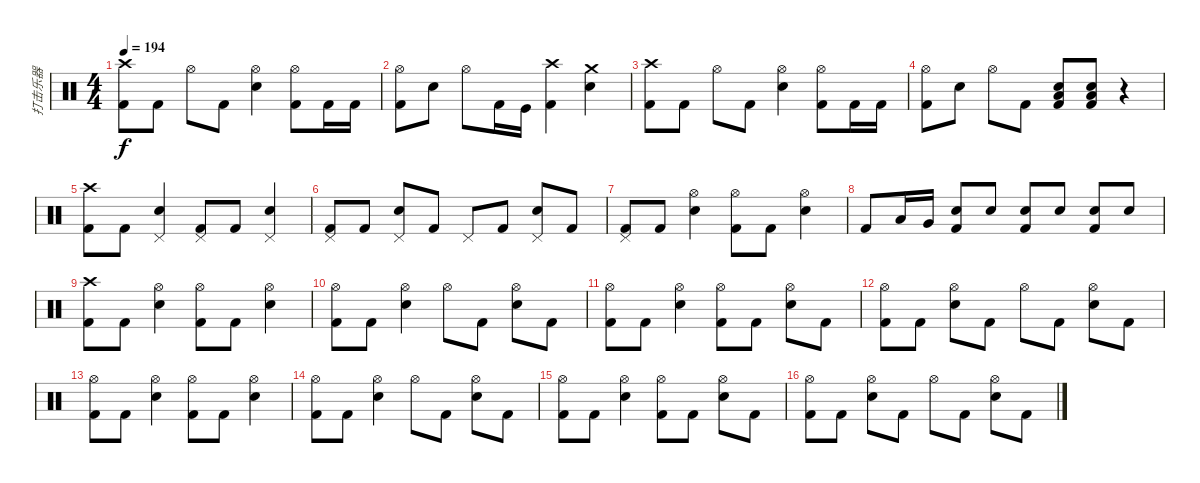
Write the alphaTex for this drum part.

\track ("打击乐器" "打击乐器") {instrument percussion}
\staff {score}
\articulation defaults
\ts (4 4)
\tempo 194
\clef neutral
\ks c
("Crash high (hit)" "Kick (hit) 2").8{dy f} "Kick (hit) 2".8 "Hi-Hat (open)".8 "Kick (hit) 2".8 ("Hi-Hat (open)" "Electric Snare (hit)").4 ("Hi-Hat (open)" "Kick (hit) 2").8 "Kick (hit) 2".16 "Kick (hit) 2".16 |
("Hi-Hat (open)" "Kick (hit) 2").8 "Electric Snare (hit)".8 "Hi-Hat (open)".8 "Kick (hit) 2".16 "Kick (hit)".16 ("Crash high (hit)" "Kick (hit) 2").4 ("Crash medium (hit)" "Electric Snare (hit)").4 |
("Crash high (hit)" "Kick (hit) 2").8 "Kick (hit) 2".8 "Hi-Hat (open)".8 "Kick (hit) 2".8 ("Hi-Hat (open)" "Electric Snare (hit)").4 ("Hi-Hat (open)" "Kick (hit) 2").8 "Kick (hit) 2".16 "Kick (hit) 2".16 |
("Hi-Hat (open)" "Kick (hit) 2").8 "Electric Snare (hit)".8 "Hi-Hat (open)".8 "Kick (hit) 2".8 ("Electric Snare (hit)" "Low Floor Tom (hit)" "Kick (hit) 2").8 ("Electric Snare (hit)" "Low Floor Tom (hit)" "Kick (hit) 2").8 r.4 |
("Crash high (hit)" "Kick (hit) 2").8 "Kick (hit) 2".8 ("Pedal Hi-Hat (hit)" "Electric Snare (hit)").4 ("Pedal Hi-Hat (hit)" "Kick (hit) 2").8 "Kick (hit) 2".8 ("Pedal Hi-Hat (hit)" "Electric Snare (hit)").4 |
("Pedal Hi-Hat (hit)" "Kick (hit) 2").8 "Kick (hit) 2".8 ("Pedal Hi-Hat (hit)" "Electric Snare (hit)").8 "Kick (hit) 2".8 "Pedal Hi-Hat (hit)".8 "Kick (hit) 2".8 ("Pedal Hi-Hat (hit)" "Electric Snare (hit)").8 "Kick (hit) 2".8 |
("Pedal Hi-Hat (hit)" "Kick (hit) 2").8 "Kick (hit) 2".8 ("Hi-Hat (open)" "Electric Snare (hit)").4 ("Hi-Hat (open)" "Kick (hit) 2").8 "Kick (hit) 2".8 ("Hi-Hat (open)" "Electric Snare (hit)").4 |
"Kick (hit) 2".8 "Low Tom (hit)".16 "Very Low Tom (hit)".16 ("Electric Snare (hit)" "Kick (hit) 2").8 "Electric Snare (hit)".8 ("Electric Snare (hit)" "Kick (hit) 2").8 "Electric Snare (hit)".8 ("Electric Snare (hit)" "Kick (hit) 2").8 "Electric Snare (hit)".8 |
("Crash high (hit)" "Kick (hit) 2").8 "Kick (hit) 2".8 ("Hi-Hat (open)" "Electric Snare (hit)").4 ("Hi-Hat (open)" "Kick (hit) 2").8 "Kick (hit) 2".8 ("Hi-Hat (open)" "Electric Snare (hit)").4 |
("Hi-Hat (open)" "Kick (hit) 2").8 "Kick (hit) 2".8 ("Hi-Hat (open)" "Electric Snare (hit)").4 "Hi-Hat (open)".8 "Kick (hit) 2".8 ("Hi-Hat (open)" "Electric Snare (hit)").8 "Kick (hit) 2".8 |
("Hi-Hat (open)" "Kick (hit) 2").8 "Kick (hit) 2".8 ("Hi-Hat (open)" "Electric Snare (hit)").4 ("Hi-Hat (open)" "Kick (hit) 2").8 "Kick (hit) 2".8 ("Hi-Hat (open)" "Electric Snare (hit)").8 "Kick (hit) 2".8 |
("Hi-Hat (open)" "Kick (hit) 2").8 "Kick (hit) 2".8 ("Hi-Hat (open)" "Electric Snare (hit)").8 "Kick (hit) 2".8 "Hi-Hat (open)".8 "Kick (hit) 2".8 ("Hi-Hat (open)" "Electric Snare (hit)").8 "Kick (hit) 2".8 |
("Hi-Hat (open)" "Kick (hit) 2").8 "Kick (hit) 2".8 ("Hi-Hat (open)" "Electric Snare (hit)").4 ("Hi-Hat (open)" "Kick (hit) 2").8 "Kick (hit) 2".8 ("Hi-Hat (open)" "Electric Snare (hit)").4 |
("Hi-Hat (open)" "Kick (hit) 2").8 "Kick (hit) 2".8 ("Hi-Hat (open)" "Electric Snare (hit)").4 "Hi-Hat (open)".8 "Kick (hit) 2".8 ("Hi-Hat (open)" "Electric Snare (hit)").8 "Kick (hit) 2".8 |
("Hi-Hat (open)" "Kick (hit) 2").8 "Kick (hit) 2".8 ("Hi-Hat (open)" "Electric Snare (hit)").4 ("Hi-Hat (open)" "Kick (hit) 2").8 "Kick (hit) 2".8 ("Hi-Hat (open)" "Electric Snare (hit)").8 "Kick (hit) 2".8 |
("Hi-Hat (open)" "Kick (hit) 2").8 "Kick (hit) 2".8 ("Hi-Hat (open)" "Electric Snare (hit)").8 "Kick (hit) 2".8 "Hi-Hat (open)".8 "Kick (hit) 2".8 ("Hi-Hat (open)" "Electric Snare (hit)").8 "Kick (hit) 2".8
